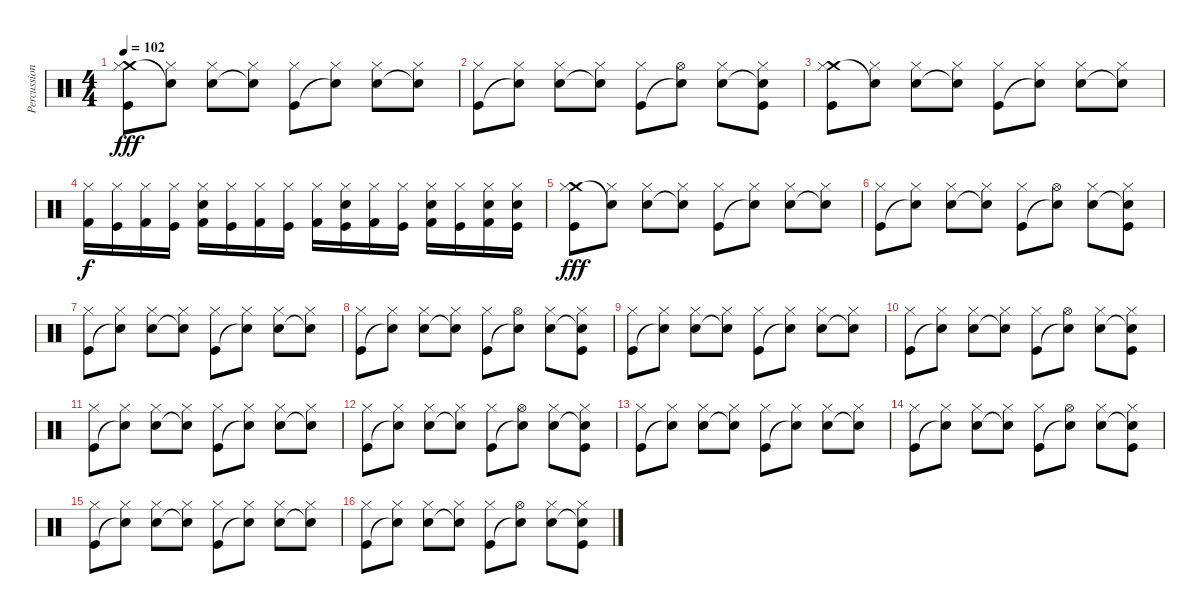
\track ("Percussion" "Percussion") {instrument percussion}
\staff {score}
\articulation defaults
\ts (4 4)
\tempo 102
\clef neutral
\ks aminor
("Crash medium (hit)" "Hi-Hat (closed)" "Kick (hit)").8{dy fff} ("Hi-Hat (closed)" "Snare (hit)"{t}).8 ("Hi-Hat (closed)" "Electric Snare (hit)").8 ("Hi-Hat (closed)" "Electric Snare (hit)"{t}).8 ("Hi-Hat (closed)" "Kick (hit)").8 ("Hi-Hat (closed)" "Snare (hit)"{t}).8 ("Hi-Hat (closed)" "Electric Snare (hit)").8 ("Hi-Hat (closed)" "Snare (hit)"{t}).8 |
("Hi-Hat (closed)" "Kick (hit)").8 ("Hi-Hat (closed)" "Snare (hit)"{t}).8 ("Hi-Hat (closed)" "Electric Snare (hit)").8 ("Hi-Hat (closed)" "Electric Snare (hit)"{t}).8 ("Hi-Hat (closed)" "Kick (hit)").8 ("Hi-Hat (open)" "Snare (hit)"{t}).8 ("Hi-Hat (closed)" "Electric Snare (hit)").8 ("Hi-Hat (closed)" "Snare (hit)"{t} "Kick (hit)").8 |
("Crash medium (hit)" "Hi-Hat (closed)" "Kick (hit)").8 ("Hi-Hat (closed)" "Snare (hit)"{t}).8 ("Hi-Hat (closed)" "Electric Snare (hit)").8 ("Hi-Hat (closed)" "Electric Snare (hit)"{t}).8 ("Hi-Hat (closed)" "Kick (hit)").8 ("Hi-Hat (closed)" "Snare (hit)"{t}).8 ("Hi-Hat (closed)" "Electric Snare (hit)").8 ("Hi-Hat (closed)" "Snare (hit)"{t}).8 |
("Hi-Hat (closed)" "Kick (hit) 2").16{dy f} ("Hi-Hat (closed)" "Kick (hit)").16 ("Hi-Hat (closed)" "Kick (hit) 2").16 ("Hi-Hat (closed)" "Kick (hit)").16 ("Hi-Hat (closed)" "Electric Snare (hit)" "Kick (hit) 2").16 ("Hi-Hat (closed)" "Kick (hit)").16 ("Hi-Hat (closed)" "Kick (hit) 2").16 ("Hi-Hat (closed)" "Kick (hit)").16 ("Hi-Hat (closed)" "Kick (hit) 2").16 ("Hi-Hat (closed)" "Electric Snare (hit)" "Kick (hit)").16 ("Hi-Hat (closed)" "Kick (hit) 2").16 ("Hi-Hat (closed)" "Kick (hit)").16 ("Hi-Hat (closed)" "Electric Snare (hit)" "Kick (hit) 2").16 ("Hi-Hat (closed)" "Kick (hit)").16 ("Hi-Hat (closed)" "Electric Snare (hit)" "Kick (hit) 2").16 ("Hi-Hat (closed)" "Electric Snare (hit)" "Kick (hit)").16 |
("Crash medium (hit)" "Hi-Hat (closed)" "Kick (hit)").8{dy fff} ("Hi-Hat (closed)" "Snare (hit)"{t}).8 ("Hi-Hat (closed)" "Electric Snare (hit)").8 ("Hi-Hat (closed)" "Electric Snare (hit)"{t}).8 ("Hi-Hat (closed)" "Kick (hit)").8 ("Hi-Hat (closed)" "Snare (hit)"{t}).8 ("Hi-Hat (closed)" "Electric Snare (hit)").8 ("Hi-Hat (closed)" "Snare (hit)"{t}).8 |
("Hi-Hat (closed)" "Kick (hit)").8 ("Hi-Hat (closed)" "Snare (hit)"{t}).8 ("Hi-Hat (closed)" "Electric Snare (hit)").8 ("Hi-Hat (closed)" "Electric Snare (hit)"{t}).8 ("Hi-Hat (closed)" "Kick (hit)").8 ("Hi-Hat (open)" "Snare (hit)"{t}).8 ("Hi-Hat (closed)" "Electric Snare (hit)").8 ("Hi-Hat (closed)" "Snare (hit)"{t} "Kick (hit)").8 |
("Hi-Hat (closed)" "Kick (hit)").8 ("Hi-Hat (closed)" "Snare (hit)"{t}).8 ("Hi-Hat (closed)" "Electric Snare (hit)").8 ("Hi-Hat (closed)" "Electric Snare (hit)"{t}).8 ("Hi-Hat (closed)" "Kick (hit)").8 ("Hi-Hat (closed)" "Snare (hit)"{t}).8 ("Hi-Hat (closed)" "Electric Snare (hit)").8 ("Hi-Hat (closed)" "Snare (hit)"{t}).8 |
("Hi-Hat (closed)" "Kick (hit)").8 ("Hi-Hat (closed)" "Snare (hit)"{t}).8 ("Hi-Hat (closed)" "Electric Snare (hit)").8 ("Hi-Hat (closed)" "Electric Snare (hit)"{t}).8 ("Hi-Hat (closed)" "Kick (hit)").8 ("Hi-Hat (open)" "Snare (hit)"{t}).8 ("Hi-Hat (closed)" "Electric Snare (hit)").8 ("Hi-Hat (closed)" "Snare (hit)"{t} "Kick (hit)").8 |
("Hi-Hat (closed)" "Kick (hit)").8 ("Hi-Hat (closed)" "Snare (hit)"{t}).8 ("Hi-Hat (closed)" "Electric Snare (hit)").8 ("Hi-Hat (closed)" "Electric Snare (hit)"{t}).8 ("Hi-Hat (closed)" "Kick (hit)").8 ("Hi-Hat (closed)" "Snare (hit)"{t}).8 ("Hi-Hat (closed)" "Electric Snare (hit)").8 ("Hi-Hat (closed)" "Snare (hit)"{t}).8 |
("Hi-Hat (closed)" "Kick (hit)").8 ("Hi-Hat (closed)" "Snare (hit)"{t}).8 ("Hi-Hat (closed)" "Electric Snare (hit)").8 ("Hi-Hat (closed)" "Electric Snare (hit)"{t}).8 ("Hi-Hat (closed)" "Kick (hit)").8 ("Hi-Hat (open)" "Snare (hit)"{t}).8 ("Hi-Hat (closed)" "Electric Snare (hit)").8 ("Hi-Hat (closed)" "Snare (hit)"{t} "Kick (hit)").8 |
("Hi-Hat (closed)" "Kick (hit)").8 ("Hi-Hat (closed)" "Snare (hit)"{t}).8 ("Hi-Hat (closed)" "Electric Snare (hit)").8 ("Hi-Hat (closed)" "Electric Snare (hit)"{t}).8 ("Hi-Hat (closed)" "Kick (hit)").8 ("Hi-Hat (closed)" "Snare (hit)"{t}).8 ("Hi-Hat (closed)" "Electric Snare (hit)").8 ("Hi-Hat (closed)" "Snare (hit)"{t}).8 |
("Hi-Hat (closed)" "Kick (hit)").8 ("Hi-Hat (closed)" "Snare (hit)"{t}).8 ("Hi-Hat (closed)" "Electric Snare (hit)").8 ("Hi-Hat (closed)" "Electric Snare (hit)"{t}).8 ("Hi-Hat (closed)" "Kick (hit)").8 ("Hi-Hat (open)" "Snare (hit)"{t}).8 ("Hi-Hat (closed)" "Electric Snare (hit)").8 ("Hi-Hat (closed)" "Snare (hit)"{t} "Kick (hit)").8 |
("Hi-Hat (closed)" "Kick (hit)").8 ("Hi-Hat (closed)" "Snare (hit)"{t}).8 ("Hi-Hat (closed)" "Electric Snare (hit)").8 ("Hi-Hat (closed)" "Electric Snare (hit)"{t}).8 ("Hi-Hat (closed)" "Kick (hit)").8 ("Hi-Hat (closed)" "Snare (hit)"{t}).8 ("Hi-Hat (closed)" "Electric Snare (hit)").8 ("Hi-Hat (closed)" "Snare (hit)"{t}).8 |
("Hi-Hat (closed)" "Kick (hit)").8 ("Hi-Hat (closed)" "Snare (hit)"{t}).8 ("Hi-Hat (closed)" "Electric Snare (hit)").8 ("Hi-Hat (closed)" "Electric Snare (hit)"{t}).8 ("Hi-Hat (closed)" "Kick (hit)").8 ("Hi-Hat (open)" "Snare (hit)"{t}).8 ("Hi-Hat (closed)" "Electric Snare (hit)").8 ("Hi-Hat (closed)" "Snare (hit)"{t} "Kick (hit)").8 |
("Hi-Hat (closed)" "Kick (hit)").8 ("Hi-Hat (closed)" "Snare (hit)"{t}).8 ("Hi-Hat (closed)" "Electric Snare (hit)").8 ("Hi-Hat (closed)" "Electric Snare (hit)"{t}).8 ("Hi-Hat (closed)" "Kick (hit)").8 ("Hi-Hat (closed)" "Snare (hit)"{t}).8 ("Hi-Hat (closed)" "Electric Snare (hit)").8 ("Hi-Hat (closed)" "Snare (hit)"{t}).8 |
("Hi-Hat (closed)" "Kick (hit)").8 ("Hi-Hat (closed)" "Snare (hit)"{t}).8 ("Hi-Hat (closed)" "Electric Snare (hit)").8 ("Hi-Hat (closed)" "Electric Snare (hit)"{t}).8 ("Hi-Hat (closed)" "Kick (hit)").8 ("Hi-Hat (open)" "Snare (hit)"{t}).8 ("Hi-Hat (closed)" "Electric Snare (hit)").8 ("Hi-Hat (closed)" "Snare (hit)"{t} "Kick (hit)").8
